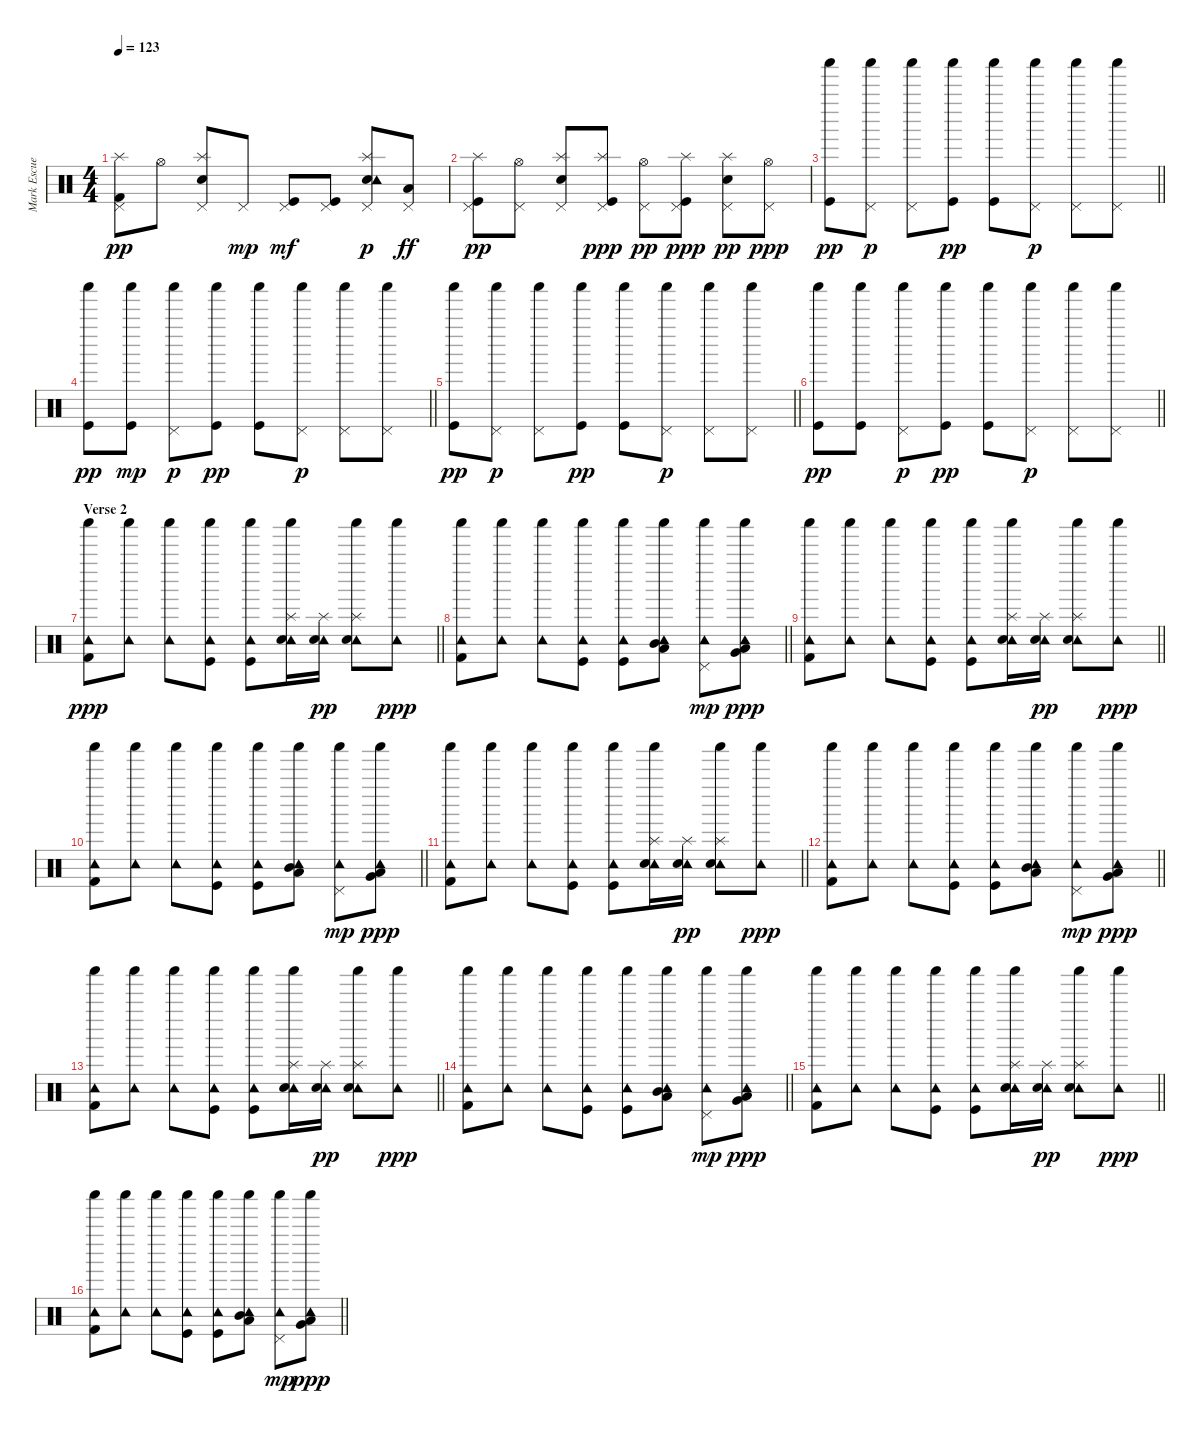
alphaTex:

\track ("Mark Escueta - Drums" "Mark Escue") {instrument percussion}
\staff {score}
\articulation defaults
\ts (4 4)
\tempo 123
\clef neutral
\ks c
("Pedal Hi-Hat (hit)" "Kick (hit) 2" "Splash (hit)").8{dy pp} "Hi-Hat (open)".8 ("Pedal Hi-Hat (hit)" "Electric Snare (hit)" "Splash (hit)").8 "Pedal Hi-Hat (hit)".8{dy mp} ("Pedal Hi-Hat (hit)" "Kick (hit)").8{dy mf} ("Pedal Hi-Hat (hit)" "Kick (hit)").8 ("Pedal Hi-Hat (hit)" "Electric Snare (hit)" "Splash (hit)" "Tambourine (hit)").8{dy p} ("Pedal Hi-Hat (hit)" "Low Tom (hit)").8{dy ff} |
("Pedal Hi-Hat (hit)" "Kick (hit)" "Splash (hit)").8{dy pp} ("Pedal Hi-Hat (hit)" "Hi-Hat (open)").8 ("Pedal Hi-Hat (hit)" "Electric Snare (hit)" "Splash (hit)").8 ("Pedal Hi-Hat (hit)" "Kick (hit)" "Splash (hit)").8{dy ppp} ("Pedal Hi-Hat (hit)" "Hi-Hat (open)").8{dy pp} ("Pedal Hi-Hat (hit)" "Kick (hit)" "Splash (hit)").8{dy ppp} ("Pedal Hi-Hat (hit)" "Electric Snare (hit)" "Splash (hit)").8{dy pp} ("Pedal Hi-Hat (hit)" "Hi-Hat (open)").8{dy ppp} |
\barLineRight lightlight
("Shaker (hit)" "Kick (hit)").8{dy pp} ("Shaker (hit)" "Pedal Hi-Hat (hit)").8{dy p} ("Shaker (hit)" "Pedal Hi-Hat (hit)").8 ("Shaker (hit)" "Kick (hit)").8{dy pp} ("Shaker (hit)" "Kick (hit)").8 ("Shaker (hit)" "Pedal Hi-Hat (hit)").8{dy p} ("Shaker (hit)" "Pedal Hi-Hat (hit)").8 ("Shaker (hit)" "Pedal Hi-Hat (hit)").8 |
\barLineRight lightlight
("Shaker (hit)" "Kick (hit)").8{dy pp} ("Shaker (hit)" "Kick (hit)").8{dy mp} ("Shaker (hit)" "Pedal Hi-Hat (hit)").8{dy p} ("Shaker (hit)" "Kick (hit)").8{dy pp} ("Shaker (hit)" "Kick (hit)").8 ("Shaker (hit)" "Pedal Hi-Hat (hit)").8{dy p} ("Shaker (hit)" "Pedal Hi-Hat (hit)").8 ("Shaker (hit)" "Pedal Hi-Hat (hit)").8 |
\barLineRight lightlight
("Shaker (hit)" "Kick (hit)").8{dy pp} ("Shaker (hit)" "Pedal Hi-Hat (hit)").8{dy p} ("Shaker (hit)" "Pedal Hi-Hat (hit)").8 ("Shaker (hit)" "Kick (hit)").8{dy pp} ("Shaker (hit)" "Kick (hit)").8 ("Shaker (hit)" "Pedal Hi-Hat (hit)").8{dy p} ("Shaker (hit)" "Pedal Hi-Hat (hit)").8 ("Shaker (hit)" "Pedal Hi-Hat (hit)").8 |
\barLineRight lightlight
("Shaker (hit)" "Kick (hit)").8{dy pp} ("Shaker (hit)" "Kick (hit)").8 ("Shaker (hit)" "Pedal Hi-Hat (hit)").8{dy p} ("Shaker (hit)" "Kick (hit)").8{dy pp} ("Shaker (hit)" "Kick (hit)").8 ("Shaker (hit)" "Pedal Hi-Hat (hit)").8{dy p} ("Shaker (hit)" "Pedal Hi-Hat (hit)").8 ("Shaker (hit)" "Pedal Hi-Hat (hit)").8 |
\section ("" "Verse 2")
\barLineRight lightlight
("Shaker (hit)" "Tambourine (hit)" "Kick (hit) 2").8{dy ppp} ("Shaker (hit)" "Tambourine (hit)").8 ("Shaker (hit)" "Tambourine (hit)").8 ("Shaker (hit)" "Tambourine (hit)" "Kick (hit)").8 ("Shaker (hit)" "Tambourine (hit)" "Kick (hit)").8 ("Shaker (hit)" "Tambourine (hit)" "Electric Snare (hit)" "Splash (hit)").16 ("Tambourine (hit)" "Electric Snare (hit)" "Splash (hit)").16{dy pp} ("Shaker (hit)" "Tambourine (hit)" "Electric Snare (hit)" "Splash (hit)").8 ("Shaker (hit)" "Tambourine (hit)").8{dy ppp} |
\barLineRight lightlight
("Shaker (hit)" "Tambourine (hit)" "Kick (hit) 2").8 ("Shaker (hit)" "Tambourine (hit)").8 ("Shaker (hit)" "Tambourine (hit)").8 ("Shaker (hit)" "Tambourine (hit)" "Kick (hit)").8 ("Shaker (hit)" "Tambourine (hit)" "Kick (hit)").8 ("Shaker (hit)" "Tambourine (hit)" "Low Tom (hit)" "Mid Tom (hit)").8{bu 60} ("Shaker (hit)" "Tambourine (hit)" "Pedal Hi-Hat (hit)").8{dy mp} ("Shaker (hit)" "Tambourine (hit)" "Very Low Tom (hit)" "Low Tom (hit)").8{bu 60 dy ppp} |
\barLineRight lightlight
("Shaker (hit)" "Tambourine (hit)" "Kick (hit) 2").8 ("Shaker (hit)" "Tambourine (hit)").8 ("Shaker (hit)" "Tambourine (hit)").8 ("Shaker (hit)" "Tambourine (hit)" "Kick (hit)").8 ("Shaker (hit)" "Tambourine (hit)" "Kick (hit)").8 ("Shaker (hit)" "Tambourine (hit)" "Electric Snare (hit)" "Splash (hit)").16 ("Tambourine (hit)" "Electric Snare (hit)" "Splash (hit)").16{dy pp} ("Shaker (hit)" "Tambourine (hit)" "Electric Snare (hit)" "Splash (hit)").8 ("Shaker (hit)" "Tambourine (hit)").8{dy ppp} |
\barLineRight lightlight
("Shaker (hit)" "Tambourine (hit)" "Kick (hit) 2").8 ("Shaker (hit)" "Tambourine (hit)").8 ("Shaker (hit)" "Tambourine (hit)").8 ("Shaker (hit)" "Tambourine (hit)" "Kick (hit)").8 ("Shaker (hit)" "Tambourine (hit)" "Kick (hit)").8 ("Shaker (hit)" "Tambourine (hit)" "Low Tom (hit)" "Mid Tom (hit)").8{bu 60} ("Shaker (hit)" "Tambourine (hit)" "Pedal Hi-Hat (hit)").8{dy mp} ("Shaker (hit)" "Tambourine (hit)" "Very Low Tom (hit)" "Low Tom (hit)").8{bu 60 dy ppp} |
\barLineRight lightlight
("Shaker (hit)" "Tambourine (hit)" "Kick (hit) 2").8 ("Shaker (hit)" "Tambourine (hit)").8 ("Shaker (hit)" "Tambourine (hit)").8 ("Shaker (hit)" "Tambourine (hit)" "Kick (hit)").8 ("Shaker (hit)" "Tambourine (hit)" "Kick (hit)").8 ("Shaker (hit)" "Tambourine (hit)" "Electric Snare (hit)" "Splash (hit)").16 ("Tambourine (hit)" "Electric Snare (hit)" "Splash (hit)").16{dy pp} ("Shaker (hit)" "Tambourine (hit)" "Electric Snare (hit)" "Splash (hit)").8 ("Shaker (hit)" "Tambourine (hit)").8{dy ppp} |
\barLineRight lightlight
("Shaker (hit)" "Tambourine (hit)" "Kick (hit) 2").8 ("Shaker (hit)" "Tambourine (hit)").8 ("Shaker (hit)" "Tambourine (hit)").8 ("Shaker (hit)" "Tambourine (hit)" "Kick (hit)").8 ("Shaker (hit)" "Tambourine (hit)" "Kick (hit)").8 ("Shaker (hit)" "Tambourine (hit)" "Low Tom (hit)" "Mid Tom (hit)").8{bu 60} ("Shaker (hit)" "Tambourine (hit)" "Pedal Hi-Hat (hit)").8{dy mp} ("Shaker (hit)" "Tambourine (hit)" "Very Low Tom (hit)" "Low Tom (hit)").8{bu 60 dy ppp} |
\barLineRight lightlight
("Shaker (hit)" "Tambourine (hit)" "Kick (hit) 2").8 ("Shaker (hit)" "Tambourine (hit)").8 ("Shaker (hit)" "Tambourine (hit)").8 ("Shaker (hit)" "Tambourine (hit)" "Kick (hit)").8 ("Shaker (hit)" "Tambourine (hit)" "Kick (hit)").8 ("Shaker (hit)" "Tambourine (hit)" "Electric Snare (hit)" "Splash (hit)").16 ("Tambourine (hit)" "Electric Snare (hit)" "Splash (hit)").16{dy pp} ("Shaker (hit)" "Tambourine (hit)" "Electric Snare (hit)" "Splash (hit)").8 ("Shaker (hit)" "Tambourine (hit)").8{dy ppp} |
\barLineRight lightlight
("Shaker (hit)" "Tambourine (hit)" "Kick (hit) 2").8 ("Shaker (hit)" "Tambourine (hit)").8 ("Shaker (hit)" "Tambourine (hit)").8 ("Shaker (hit)" "Tambourine (hit)" "Kick (hit)").8 ("Shaker (hit)" "Tambourine (hit)" "Kick (hit)").8 ("Shaker (hit)" "Tambourine (hit)" "Low Tom (hit)" "Mid Tom (hit)").8{bu 60} ("Shaker (hit)" "Tambourine (hit)" "Pedal Hi-Hat (hit)").8{dy mp} ("Shaker (hit)" "Tambourine (hit)" "Very Low Tom (hit)" "Low Tom (hit)").8{bu 60 dy ppp} |
\barLineRight lightlight
("Shaker (hit)" "Tambourine (hit)" "Kick (hit) 2").8 ("Shaker (hit)" "Tambourine (hit)").8 ("Shaker (hit)" "Tambourine (hit)").8 ("Shaker (hit)" "Tambourine (hit)" "Kick (hit)").8 ("Shaker (hit)" "Tambourine (hit)" "Kick (hit)").8 ("Shaker (hit)" "Tambourine (hit)" "Electric Snare (hit)" "Splash (hit)").16 ("Tambourine (hit)" "Electric Snare (hit)" "Splash (hit)").16{dy pp} ("Shaker (hit)" "Tambourine (hit)" "Electric Snare (hit)" "Splash (hit)").8 ("Shaker (hit)" "Tambourine (hit)").8{dy ppp} |
\barLineRight lightlight
("Shaker (hit)" "Tambourine (hit)" "Kick (hit) 2").8 ("Shaker (hit)" "Tambourine (hit)").8 ("Shaker (hit)" "Tambourine (hit)").8 ("Shaker (hit)" "Tambourine (hit)" "Kick (hit)").8 ("Shaker (hit)" "Tambourine (hit)" "Kick (hit)").8 ("Shaker (hit)" "Tambourine (hit)" "Low Tom (hit)" "Mid Tom (hit)").8{bu 60} ("Shaker (hit)" "Tambourine (hit)" "Pedal Hi-Hat (hit)").8{dy mp} ("Shaker (hit)" "Tambourine (hit)" "Very Low Tom (hit)" "Low Tom (hit)").8{bu 60 dy ppp}
